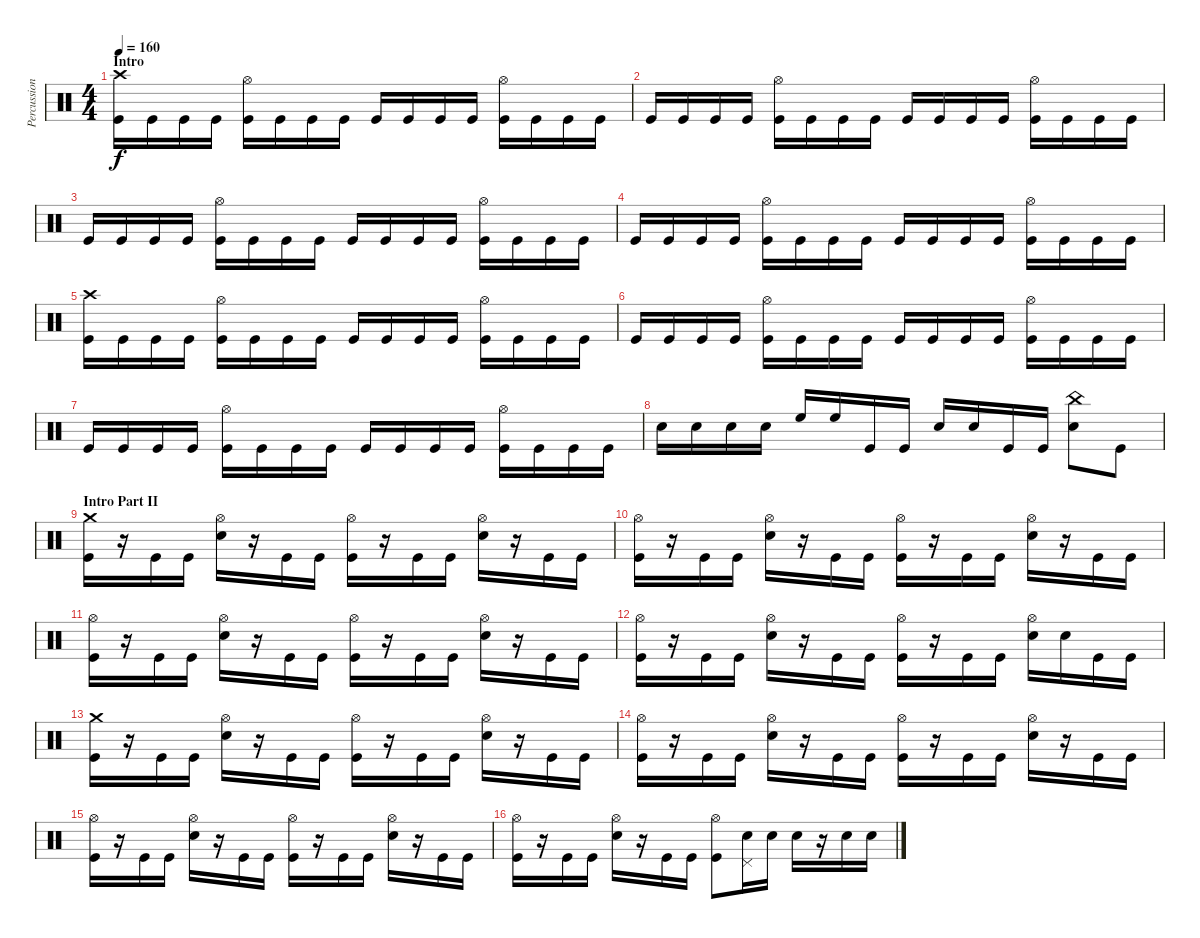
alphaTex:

\track ("Percussion" "Percussion") {instrument percussion}
\staff {score}
\articulation defaults
\ts (4 4)
\section ("" "Intro")
\tempo 160
\clef neutral
\ks c
("Crash high (hit)" "Kick (hit)").16{dy f} "Kick (hit)".16 "Kick (hit)".16 "Kick (hit)".16 ("Hi-Hat (open)" "Kick (hit)").16 "Kick (hit)".16 "Kick (hit)".16 "Kick (hit)".16 "Kick (hit)".16 "Kick (hit)".16 "Kick (hit)".16 "Kick (hit)".16 ("Hi-Hat (open)" "Kick (hit)").16 "Kick (hit)".16 "Kick (hit)".16 "Kick (hit)".16 |
"Kick (hit)".16 "Kick (hit)".16 "Kick (hit)".16 "Kick (hit)".16 ("Hi-Hat (open)" "Kick (hit)").16 "Kick (hit)".16 "Kick (hit)".16 "Kick (hit)".16 "Kick (hit)".16 "Kick (hit)".16 "Kick (hit)".16 "Kick (hit)".16 ("Hi-Hat (open)" "Kick (hit)").16 "Kick (hit)".16 "Kick (hit)".16 "Kick (hit)".16 |
"Kick (hit)".16 "Kick (hit)".16 "Kick (hit)".16 "Kick (hit)".16 ("Hi-Hat (open)" "Kick (hit)").16 "Kick (hit)".16 "Kick (hit)".16 "Kick (hit)".16 "Kick (hit)".16 "Kick (hit)".16 "Kick (hit)".16 "Kick (hit)".16 ("Hi-Hat (open)" "Kick (hit)").16 "Kick (hit)".16 "Kick (hit)".16 "Kick (hit)".16 |
"Kick (hit)".16 "Kick (hit)".16 "Kick (hit)".16 "Kick (hit)".16 ("Hi-Hat (open)" "Kick (hit)").16 "Kick (hit)".16 "Kick (hit)".16 "Kick (hit)".16 "Kick (hit)".16 "Kick (hit)".16 "Kick (hit)".16 "Kick (hit)".16 ("Hi-Hat (open)" "Kick (hit)").16 "Kick (hit)".16 "Kick (hit)".16 "Kick (hit)".16 |
("Crash high (hit)" "Kick (hit)").16 "Kick (hit)".16 "Kick (hit)".16 "Kick (hit)".16 ("Hi-Hat (open)" "Kick (hit)").16 "Kick (hit)".16 "Kick (hit)".16 "Kick (hit)".16 "Kick (hit)".16 "Kick (hit)".16 "Kick (hit)".16 "Kick (hit)".16 ("Hi-Hat (open)" "Kick (hit)").16 "Kick (hit)".16 "Kick (hit)".16 "Kick (hit)".16 |
"Kick (hit)".16 "Kick (hit)".16 "Kick (hit)".16 "Kick (hit)".16 ("Hi-Hat (open)" "Kick (hit)").16 "Kick (hit)".16 "Kick (hit)".16 "Kick (hit)".16 "Kick (hit)".16 "Kick (hit)".16 "Kick (hit)".16 "Kick (hit)".16 ("Hi-Hat (open)" "Kick (hit)").16 "Kick (hit)".16 "Kick (hit)".16 "Kick (hit)".16 |
"Kick (hit)".16 "Kick (hit)".16 "Kick (hit)".16 "Kick (hit)".16 ("Hi-Hat (open)" "Kick (hit)").16 "Kick (hit)".16 "Kick (hit)".16 "Kick (hit)".16 "Kick (hit)".16 "Kick (hit)".16 "Kick (hit)".16 "Kick (hit)".16 ("Hi-Hat (open)" "Kick (hit)").16 "Kick (hit)".16 "Kick (hit)".16 "Kick (hit)".16 |
"Electric Snare (hit)".16 "Electric Snare (hit)".16 "Electric Snare (hit)".16 "Electric Snare (hit)".16 "High Floor Tom (hit)".16 "High Floor Tom (hit)".16 "Kick (hit)".16 "Kick (hit)".16 "Electric Snare (hit)".16 "Electric Snare (hit)".16 "Kick (hit)".16 "Kick (hit)".16 ("China (hit)" "Electric Snare (hit)").8 "Kick (hit)".8 |
\section ("" "Intro Part II")
("Crash medium (hit)" "Kick (hit)").16 r.16 "Kick (hit)".16 "Kick (hit)".16 ("Hi-Hat (open)" "Electric Snare (hit)").16 r.16 "Kick (hit)".16 "Kick (hit)".16 ("Hi-Hat (open)" "Kick (hit)").16 r.16 "Kick (hit)".16 "Kick (hit)".16 ("Hi-Hat (open)" "Electric Snare (hit)").16 r.16 "Kick (hit)".16 "Kick (hit)".16 |
("Hi-Hat (open)" "Kick (hit)").16 r.16 "Kick (hit)".16 "Kick (hit)".16 ("Hi-Hat (open)" "Electric Snare (hit)").16 r.16 "Kick (hit)".16 "Kick (hit)".16 ("Hi-Hat (open)" "Kick (hit)").16 r.16 "Kick (hit)".16 "Kick (hit)".16 ("Hi-Hat (open)" "Electric Snare (hit)").16 r.16 "Kick (hit)".16 "Kick (hit)".16 |
("Hi-Hat (open)" "Kick (hit)").16 r.16 "Kick (hit)".16 "Kick (hit)".16 ("Hi-Hat (open)" "Electric Snare (hit)").16 r.16 "Kick (hit)".16 "Kick (hit)".16 ("Hi-Hat (open)" "Kick (hit)").16 r.16 "Kick (hit)".16 "Kick (hit)".16 ("Hi-Hat (open)" "Electric Snare (hit)").16 r.16 "Kick (hit)".16 "Kick (hit)".16 |
("Hi-Hat (open)" "Kick (hit)").16 r.16 "Kick (hit)".16 "Kick (hit)".16 ("Hi-Hat (open)" "Electric Snare (hit)").16 r.16 "Kick (hit)".16 "Kick (hit)".16 ("Hi-Hat (open)" "Kick (hit)").16 r.16 "Kick (hit)".16 "Kick (hit)".16 ("Hi-Hat (open)" "Electric Snare (hit)").16 "Electric Snare (hit)".16 "Kick (hit)".16 "Kick (hit)".16 |
("Crash medium (hit)" "Kick (hit)").16 r.16 "Kick (hit)".16 "Kick (hit)".16 ("Hi-Hat (open)" "Electric Snare (hit)").16 r.16 "Kick (hit)".16 "Kick (hit)".16 ("Hi-Hat (open)" "Kick (hit)").16 r.16 "Kick (hit)".16 "Kick (hit)".16 ("Hi-Hat (open)" "Electric Snare (hit)").16 r.16 "Kick (hit)".16 "Kick (hit)".16 |
("Hi-Hat (open)" "Kick (hit)").16 r.16 "Kick (hit)".16 "Kick (hit)".16 ("Hi-Hat (open)" "Electric Snare (hit)").16 r.16 "Kick (hit)".16 "Kick (hit)".16 ("Hi-Hat (open)" "Kick (hit)").16 r.16 "Kick (hit)".16 "Kick (hit)".16 ("Hi-Hat (open)" "Electric Snare (hit)").16 r.16 "Kick (hit)".16 "Kick (hit)".16 |
("Hi-Hat (open)" "Kick (hit)").16 r.16 "Kick (hit)".16 "Kick (hit)".16 ("Hi-Hat (open)" "Electric Snare (hit)").16 r.16 "Kick (hit)".16 "Kick (hit)".16 ("Hi-Hat (open)" "Kick (hit)").16 r.16 "Kick (hit)".16 "Kick (hit)".16 ("Hi-Hat (open)" "Electric Snare (hit)").16 r.16 "Kick (hit)".16 "Kick (hit)".16 |
("Hi-Hat (open)" "Kick (hit)").16 r.16 "Kick (hit)".16 "Kick (hit)".16 ("Hi-Hat (open)" "Electric Snare (hit)").16 r.16 "Kick (hit)".16 "Kick (hit)".16 ("Hi-Hat (open)" "Kick (hit)").8 ("Pedal Hi-Hat (hit)" "Electric Snare (hit)").16 "Electric Snare (hit)".16 "Electric Snare (hit)".16 r.16 "Electric Snare (hit)".16 "Electric Snare (hit)".16
